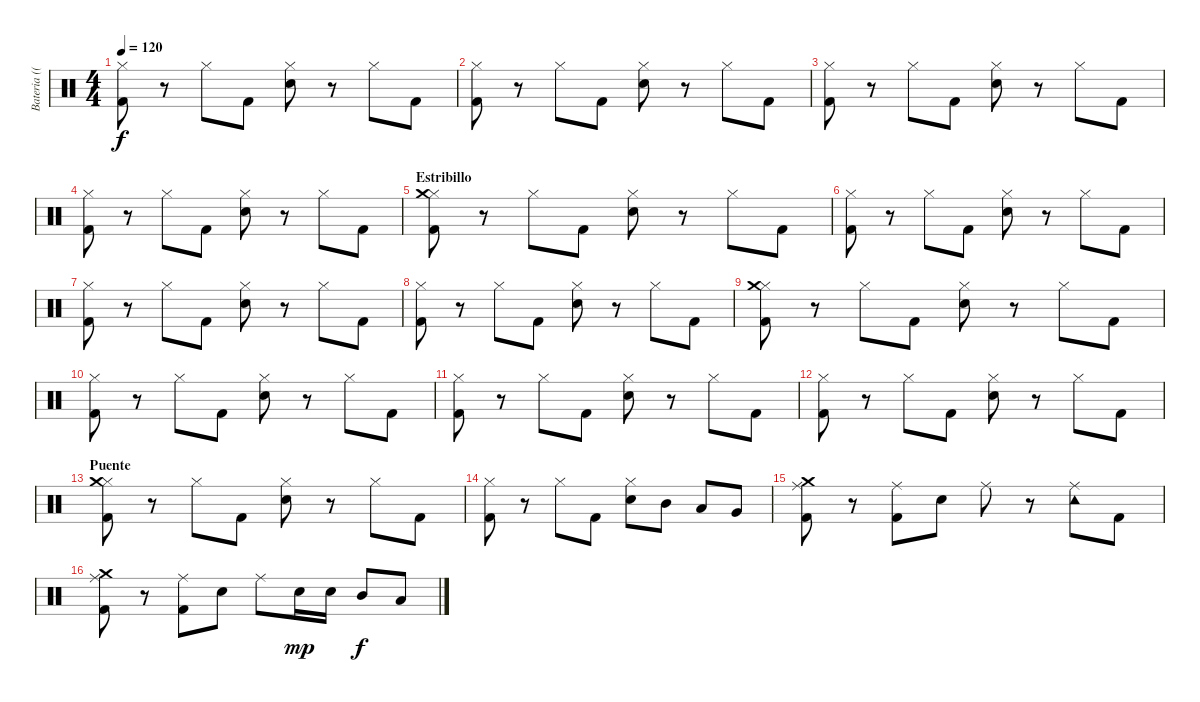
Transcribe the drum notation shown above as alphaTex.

\track ("Bateria ((Matt))" "Bateria ((") {instrument percussion}
\staff {score}
\articulation defaults
\ts (4 4)
\tempo 120
\clef neutral
\ks c
("Hi-Hat (closed)" "Kick (hit) 2").8{dy f} r.8 "Hi-Hat (closed)".8 "Kick (hit) 2".8 ("Hi-Hat (closed)" "Electric Snare (hit)").8 r.8 "Hi-Hat (closed)".8 "Kick (hit) 2".8 |
("Hi-Hat (closed)" "Kick (hit) 2").8 r.8 "Hi-Hat (closed)".8 "Kick (hit) 2".8 ("Hi-Hat (closed)" "Electric Snare (hit)").8 r.8 "Hi-Hat (closed)".8 "Kick (hit) 2".8 |
("Hi-Hat (closed)" "Kick (hit) 2").8 r.8 "Hi-Hat (closed)".8 "Kick (hit) 2".8 ("Hi-Hat (closed)" "Electric Snare (hit)").8 r.8 "Hi-Hat (closed)".8 "Kick (hit) 2".8 |
("Hi-Hat (closed)" "Kick (hit) 2").8 r.8 "Hi-Hat (closed)".8 "Kick (hit) 2".8 ("Hi-Hat (closed)" "Electric Snare (hit)").8 r.8 "Hi-Hat (closed)".8 "Kick (hit) 2".8 |
\section ("" "Estribillo")
("Hi-Hat (closed)" "Crash medium (hit)" "Kick (hit) 2").8 r.8 "Hi-Hat (closed)".8 "Kick (hit) 2".8 ("Hi-Hat (closed)" "Electric Snare (hit)").8 r.8 "Hi-Hat (closed)".8 "Kick (hit) 2".8 |
("Hi-Hat (closed)" "Kick (hit) 2").8 r.8 "Hi-Hat (closed)".8 "Kick (hit) 2".8 ("Hi-Hat (closed)" "Electric Snare (hit)").8 r.8 "Hi-Hat (closed)".8 "Kick (hit) 2".8 |
("Hi-Hat (closed)" "Kick (hit) 2").8 r.8 "Hi-Hat (closed)".8 "Kick (hit) 2".8 ("Hi-Hat (closed)" "Electric Snare (hit)").8 r.8 "Hi-Hat (closed)".8 "Kick (hit) 2".8 |
("Hi-Hat (closed)" "Kick (hit) 2").8 r.8 "Hi-Hat (closed)".8 "Kick (hit) 2".8 ("Hi-Hat (closed)" "Electric Snare (hit)").8 r.8 "Hi-Hat (closed)".8 "Kick (hit) 2".8 |
("Hi-Hat (closed)" "Crash medium (hit)" "Kick (hit) 2").8 r.8 "Hi-Hat (closed)".8 "Kick (hit) 2".8 ("Hi-Hat (closed)" "Electric Snare (hit)").8 r.8 "Hi-Hat (closed)".8 "Kick (hit) 2".8 |
("Hi-Hat (closed)" "Kick (hit) 2").8 r.8 "Hi-Hat (closed)".8 "Kick (hit) 2".8 ("Hi-Hat (closed)" "Electric Snare (hit)").8 r.8 "Hi-Hat (closed)".8 "Kick (hit) 2".8 |
("Hi-Hat (closed)" "Kick (hit) 2").8 r.8 "Hi-Hat (closed)".8 "Kick (hit) 2".8 ("Hi-Hat (closed)" "Electric Snare (hit)").8 r.8 "Hi-Hat (closed)".8 "Kick (hit) 2".8 |
("Hi-Hat (closed)" "Kick (hit) 2").8 r.8 "Hi-Hat (closed)".8 "Kick (hit) 2".8 ("Hi-Hat (closed)" "Electric Snare (hit)").8 r.8 "Hi-Hat (closed)".8 "Kick (hit) 2".8 |
\section ("" "Puente")
("Hi-Hat (closed)" "Crash medium (hit)" "Kick (hit) 2").8 r.8 "Hi-Hat (closed)".8 "Kick (hit) 2".8 ("Hi-Hat (closed)" "Electric Snare (hit)").8 r.8 "Hi-Hat (closed)".8 "Kick (hit) 2".8 |
("Hi-Hat (closed)" "Kick (hit) 2").8 r.8 "Hi-Hat (closed)".8 "Kick (hit) 2".8 ("Hi-Hat (closed)" "Electric Snare (hit)").8 "Mid Tom (hit)".8 "Low Tom (hit)".8 "Very Low Tom (hit)".8 |
("Ride (middle)" "Crash medium (hit)" "Kick (hit) 2").8 r.8 ("Ride (middle)" "Kick (hit) 2").8 "Electric Snare (hit)".8 "Ride (middle)".8 r.8 ("Ride (middle)" "Tambourine (hit)").8 "Kick (hit) 2".8 |
("Ride (middle)" "Crash medium (hit)" "Kick (hit) 2").8 r.8 ("Ride (middle)" "Kick (hit) 2").8 "Electric Snare (hit)".8 "Ride (middle)".8 "Electric Snare (hit)".16{dy mp} "Electric Snare (hit)".16 "Mid Tom (hit)".8{dy f} "Low Tom (hit)".8
